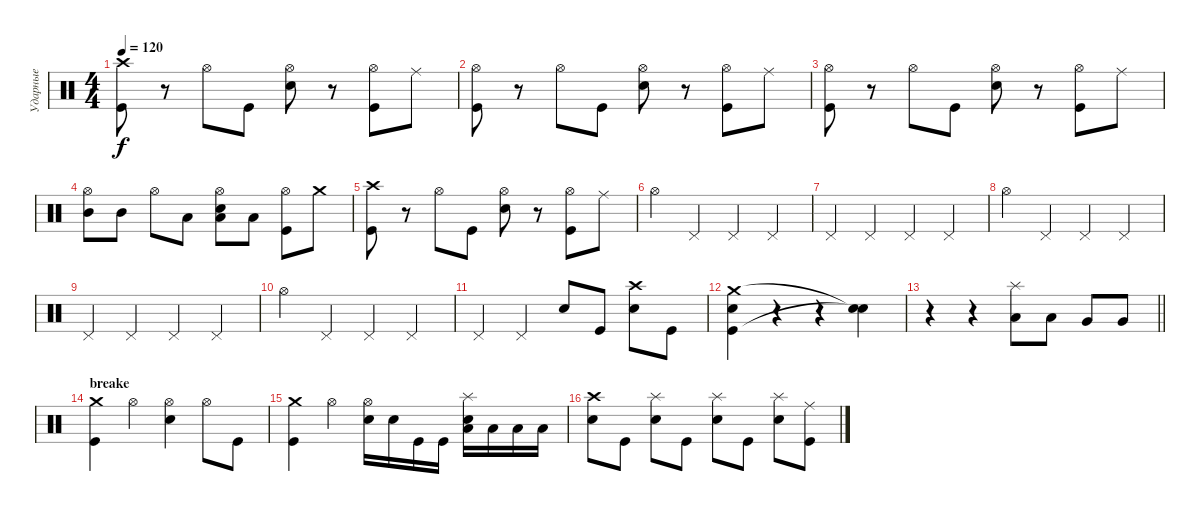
\track ("Ударные" "Ударные") {instrument percussion}
\staff {score}
\articulation defaults
\ts (4 4)
\tempo 120
\clef neutral
\ks c
("Kick (hit)" "Crash high (hit)").8{dy f} r.8 "Hi-Hat (open)".8 "Kick (hit)".8 ("Electric Snare (hit)" "Hi-Hat (open)").8 r.8 ("Kick (hit)" "Hi-Hat (open)").8 "Ride (middle)".8 |
("Kick (hit)" "Hi-Hat (open)").8 r.8 "Hi-Hat (open)".8 "Kick (hit)".8 ("Electric Snare (hit)" "Hi-Hat (open)").8 r.8 ("Kick (hit)" "Hi-Hat (open)").8 "Ride (middle)".8 |
("Kick (hit)" "Hi-Hat (open)").8 r.8 "Hi-Hat (open)".8 "Kick (hit)".8 ("Electric Snare (hit)" "Hi-Hat (open)").8 r.8 ("Kick (hit)" "Hi-Hat (open)").8 "Ride (middle)".8 |
("Mid Tom (hit)" "Hi-Hat (open)").8 "Mid Tom (hit)".8 "Hi-Hat (open)".8 "Low Tom (hit)".8 ("Low Tom (hit)" "Electric Snare (hit)" "Hi-Hat (open)").8 "Low Tom (hit)".8 ("Kick (hit)" "Hi-Hat (open)").8 "Crash medium (hit)".8 |
("Kick (hit)" "Crash high (hit)").8 r.8 "Hi-Hat (open)".8 "Kick (hit)".8 ("Electric Snare (hit)" "Hi-Hat (open)").8 r.8 ("Kick (hit)" "Hi-Hat (open)").8 "Ride (middle)".8 |
"Hi-Hat (open)".4 "Pedal Hi-Hat (hit)".4 "Pedal Hi-Hat (hit)".4 "Pedal Hi-Hat (hit)".4 |
"Pedal Hi-Hat (hit)".4 "Pedal Hi-Hat (hit)".4 "Pedal Hi-Hat (hit)".4 "Pedal Hi-Hat (hit)".4 |
"Hi-Hat (open)".4 "Pedal Hi-Hat (hit)".4 "Pedal Hi-Hat (hit)".4 "Pedal Hi-Hat (hit)".4 |
"Pedal Hi-Hat (hit)".4 "Pedal Hi-Hat (hit)".4 "Pedal Hi-Hat (hit)".4 "Pedal Hi-Hat (hit)".4 |
"Hi-Hat (open)".4 "Pedal Hi-Hat (hit)".4 "Pedal Hi-Hat (hit)".4 "Pedal Hi-Hat (hit)".4 |
"Pedal Hi-Hat (hit)".4 "Pedal Hi-Hat (hit)".4 "Electric Snare (hit)".8 "Kick (hit)".8 ("Electric Snare (hit)" "Crash high (hit)").8 "Kick (hit)".8 |
("Kick (hit)" "Crash medium (hit)" "Electric Snare (hit)").4 r.4 r.4 ("Snare (hit)"{t} "Snare (hit)"{t}).4 |
\barLineRight lightlight
r.4 r.4 ("Splash (hit)" "Low Tom (hit)").8 "Low Tom (hit)".8 "Very Low Tom (hit)".8 "Very Low Tom (hit)".8 |
\section ("" "breake")
("Crash medium (hit)" "Kick (hit)").4 "Hi-Hat (open)".4 ("Hi-Hat (open)" "Electric Snare (hit)").4 "Hi-Hat (open)".8 "Kick (hit)".8 |
("Crash medium (hit)" "Kick (hit)").4 "Hi-Hat (open)".4 ("Hi-Hat (open)" "Electric Snare (hit)").16 "Electric Snare (hit)".16 "Kick (hit)".16 "Kick (hit)".16 ("Splash (hit)" "Electric Snare (hit)" "Low Tom (hit)").16 "Low Tom (hit)".16 "Low Tom (hit)".16 "Low Tom (hit)".16 |
("Crash high (hit)" "Electric Snare (hit)").8 "Kick (hit)".8 ("Splash (hit)" "Electric Snare (hit)").8 "Kick (hit)".8 ("Splash (hit)" "Electric Snare (hit)").8 "Kick (hit)".8 ("Splash (hit)" "Electric Snare (hit)").8 ("Ride (middle)" "Kick (hit)").8
